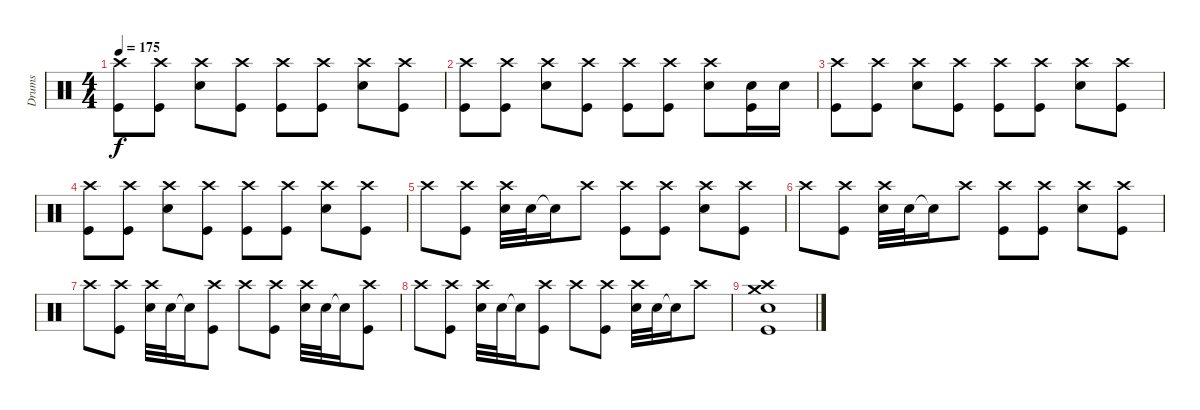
\track ("Drums" "Drums") {instrument percussion}
\staff {score}
\articulation defaults
\ts (4 4)
\tempo 175
\clef neutral
\ks c
("Crash high (hit)" "Kick (hit)").8{dy f} ("Crash high (hit)" "Kick (hit)").8 ("Crash high (hit)" "Snare (hit) 2").8 ("Crash high (hit)" "Kick (hit)").8 ("Crash high (hit)" "Kick (hit)").8 ("Crash high (hit)" "Kick (hit)").8 ("Crash high (hit)" "Snare (hit) 2").8 ("Crash high (hit)" "Kick (hit)").8 |
("Crash high (hit)" "Kick (hit)").8 ("Crash high (hit)" "Kick (hit)").8 ("Crash high (hit)" "Snare (hit) 2").8 ("Crash high (hit)" "Kick (hit)").8 ("Crash high (hit)" "Kick (hit)").8 ("Crash high (hit)" "Kick (hit)").8 ("Crash high (hit)" "Snare (hit) 2").8 ("Snare (hit) 2" "Kick (hit)").16 "Snare (hit) 2".16 |
("Crash high (hit)" "Kick (hit)").8 ("Crash high (hit)" "Kick (hit)").8 ("Crash high (hit)" "Snare (hit) 2").8 ("Crash high (hit)" "Kick (hit)").8 ("Crash high (hit)" "Kick (hit)").8 ("Crash high (hit)" "Kick (hit)").8 ("Crash high (hit)" "Snare (hit) 2").8 ("Crash high (hit)" "Kick (hit)").8 |
("Crash high (hit)" "Kick (hit)").8 ("Crash high (hit)" "Kick (hit)").8 ("Crash high (hit)" "Snare (hit) 2").8 ("Crash high (hit)" "Kick (hit)").8 ("Crash high (hit)" "Kick (hit)").8 ("Crash high (hit)" "Kick (hit)").8 ("Crash high (hit)" "Snare (hit) 2").8 ("Crash high (hit)" "Kick (hit)").8 |
"Crash high (hit)".8 ("Crash high (hit)" "Kick (hit)").8 ("Crash high (hit)" "Snare (hit) 2").32 "Snare (hit) 2".32 "Snare (hit)"{t}.16 "Crash high (hit)".8 ("Crash high (hit)" "Kick (hit)").8 ("Crash high (hit)" "Kick (hit)").8 ("Crash high (hit)" "Snare (hit) 2").8 ("Crash high (hit)" "Kick (hit)").8 |
"Crash high (hit)".8 ("Crash high (hit)" "Kick (hit)").8 ("Crash high (hit)" "Snare (hit) 2").32 "Snare (hit) 2".32 "Snare (hit)"{t}.16 "Crash high (hit)".8 ("Crash high (hit)" "Kick (hit)").8 ("Crash high (hit)" "Kick (hit)").8 ("Crash high (hit)" "Snare (hit) 2").8 ("Crash high (hit)" "Kick (hit)").8 |
"Crash high (hit)".8 ("Crash high (hit)" "Kick (hit)").8 ("Crash high (hit)" "Snare (hit) 2").32 "Snare (hit) 2".32 "Snare (hit)"{t}.16 ("Crash high (hit)" "Kick (hit)").8 "Crash high (hit)".8 ("Crash high (hit)" "Kick (hit)").8 ("Crash high (hit)" "Snare (hit) 2").32 "Snare (hit) 2".32 "Snare (hit)"{t}.16 ("Crash high (hit)" "Kick (hit)").8 |
"Crash high (hit)".8 ("Crash high (hit)" "Kick (hit)").8 ("Crash high (hit)" "Snare (hit) 2").32 "Snare (hit) 2".32 "Snare (hit)"{t}.16 ("Crash high (hit)" "Kick (hit)").8 "Crash high (hit)".8 ("Crash high (hit)" "Kick (hit)").8 ("Crash high (hit)" "Snare (hit) 2").32 "Snare (hit) 2".32 "Snare (hit)"{t}.16 "Crash high (hit)".8 |
("Crash medium (hit)" "Crash high (hit)" "Snare (hit) 2" "Kick (hit)").1
